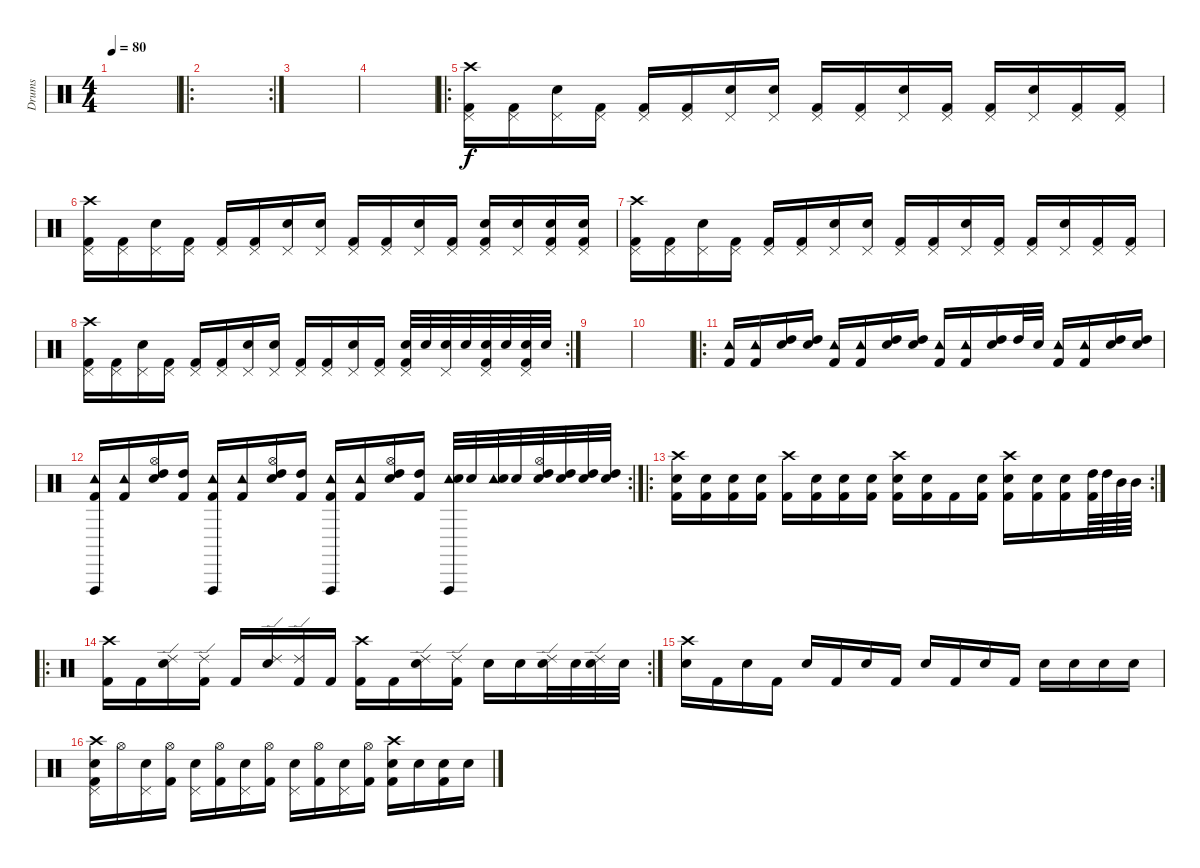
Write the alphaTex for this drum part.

\track ("Drums" "Drums") {instrument percussion}
\staff {score}
\articulation defaults
\ts (4 4)
\tempo 80
\clef neutral
\ks c
|
\ro
\rc 2
|
|
|
\ro
("Crash high (hit)" "Pedal Hi-Hat (hit)" "Kick (hit) 2").16 ("Pedal Hi-Hat (hit)" "Kick (hit) 2").16 ("Pedal Hi-Hat (hit)" "Electric Snare (hit)").16 ("Pedal Hi-Hat (hit)" "Kick (hit) 2").16 ("Pedal Hi-Hat (hit)" "Kick (hit) 2").16 ("Pedal Hi-Hat (hit)" "Kick (hit) 2").16 ("Pedal Hi-Hat (hit)" "Electric Snare (hit)").16 ("Pedal Hi-Hat (hit)" "Electric Snare (hit)").16 ("Pedal Hi-Hat (hit)" "Kick (hit) 2").16 ("Pedal Hi-Hat (hit)" "Kick (hit) 2").16 ("Pedal Hi-Hat (hit)" "Electric Snare (hit)").16 ("Pedal Hi-Hat (hit)" "Kick (hit) 2").16 ("Pedal Hi-Hat (hit)" "Kick (hit) 2").16 ("Pedal Hi-Hat (hit)" "Electric Snare (hit)").16 ("Pedal Hi-Hat (hit)" "Kick (hit) 2").16 ("Pedal Hi-Hat (hit)" "Kick (hit) 2").16 |
("Crash high (hit)" "Pedal Hi-Hat (hit)" "Kick (hit) 2").16 ("Pedal Hi-Hat (hit)" "Kick (hit) 2").16 ("Pedal Hi-Hat (hit)" "Electric Snare (hit)").16 ("Pedal Hi-Hat (hit)" "Kick (hit) 2").16 ("Pedal Hi-Hat (hit)" "Kick (hit) 2").16 ("Pedal Hi-Hat (hit)" "Kick (hit) 2").16 ("Pedal Hi-Hat (hit)" "Electric Snare (hit)").16 ("Pedal Hi-Hat (hit)" "Electric Snare (hit)").16 ("Pedal Hi-Hat (hit)" "Kick (hit) 2").16 ("Pedal Hi-Hat (hit)" "Kick (hit) 2").16 ("Pedal Hi-Hat (hit)" "Electric Snare (hit)").16 ("Pedal Hi-Hat (hit)" "Kick (hit) 2").16 ("Pedal Hi-Hat (hit)" "Electric Snare (hit)" "Kick (hit) 2").16 ("Pedal Hi-Hat (hit)" "Electric Snare (hit)").16 ("Pedal Hi-Hat (hit)" "Electric Snare (hit)" "Kick (hit) 2").16 ("Pedal Hi-Hat (hit)" "Electric Snare (hit)" "Kick (hit) 2").16 |
("Crash high (hit)" "Pedal Hi-Hat (hit)" "Kick (hit) 2").16 ("Pedal Hi-Hat (hit)" "Kick (hit) 2").16 ("Pedal Hi-Hat (hit)" "Electric Snare (hit)").16 ("Pedal Hi-Hat (hit)" "Kick (hit) 2").16 ("Pedal Hi-Hat (hit)" "Kick (hit) 2").16 ("Pedal Hi-Hat (hit)" "Kick (hit) 2").16 ("Pedal Hi-Hat (hit)" "Electric Snare (hit)").16 ("Pedal Hi-Hat (hit)" "Electric Snare (hit)").16 ("Pedal Hi-Hat (hit)" "Kick (hit) 2").16 ("Pedal Hi-Hat (hit)" "Kick (hit) 2").16 ("Pedal Hi-Hat (hit)" "Electric Snare (hit)").16 ("Pedal Hi-Hat (hit)" "Kick (hit) 2").16 ("Pedal Hi-Hat (hit)" "Kick (hit) 2").16 ("Pedal Hi-Hat (hit)" "Electric Snare (hit)").16 ("Pedal Hi-Hat (hit)" "Kick (hit) 2").16 ("Pedal Hi-Hat (hit)" "Kick (hit) 2").16 |
\rc 2
("Crash high (hit)" "Pedal Hi-Hat (hit)" "Kick (hit) 2").16 ("Pedal Hi-Hat (hit)" "Kick (hit) 2").16 ("Pedal Hi-Hat (hit)" "Electric Snare (hit)").16 ("Pedal Hi-Hat (hit)" "Kick (hit) 2").16 ("Pedal Hi-Hat (hit)" "Kick (hit) 2").16 ("Pedal Hi-Hat (hit)" "Kick (hit) 2").16 ("Pedal Hi-Hat (hit)" "Electric Snare (hit)").16 ("Pedal Hi-Hat (hit)" "Electric Snare (hit)").16 ("Pedal Hi-Hat (hit)" "Kick (hit) 2").16 ("Pedal Hi-Hat (hit)" "Kick (hit) 2").16 ("Pedal Hi-Hat (hit)" "Electric Snare (hit)").16 ("Pedal Hi-Hat (hit)" "Kick (hit) 2").16 ("Pedal Hi-Hat (hit)" "Electric Snare (hit)" "Kick (hit) 2").32 "Electric Snare (hit)".32 ("Pedal Hi-Hat (hit)" "Electric Snare (hit)").32 "Electric Snare (hit)".32 ("Pedal Hi-Hat (hit)" "Electric Snare (hit)" "Kick (hit) 2").32 "Electric Snare (hit)".32 ("Pedal Hi-Hat (hit)" "Electric Snare (hit)" "Kick (hit) 2").32 "Electric Snare (hit)".32 |
|
|
\ro
("Tambourine (hit)" "Kick (hit) 2").16 ("Tambourine (hit)" "Kick (hit) 2").16 ("High Tom (hit)" "Electric Snare (hit)").16 ("High Tom (hit)" "Electric Snare (hit)").16 ("Tambourine (hit)" "Kick (hit) 2").16 ("Tambourine (hit)" "Kick (hit) 2").16 ("High Tom (hit)" "Electric Snare (hit)").16 ("High Tom (hit)" "Electric Snare (hit)").16 ("Tambourine (hit)" "Kick (hit) 2").16 ("Tambourine (hit)" "Kick (hit) 2").16 ("High Tom (hit)" "Electric Snare (hit)").16 "High Tom (hit)".32 "Electric Snare (hit)".32 ("Tambourine (hit)" "Kick (hit) 2").16 ("Tambourine (hit)" "Kick (hit) 2").16 ("High Tom (hit)" "Electric Snare (hit)").16 ("High Tom (hit)" "Electric Snare (hit)").16 |
\rc 2
("Tambourine (hit)" "Vibraslap (hit)" "Kick (hit) 2").16 ("Tambourine (hit)" "Kick (hit) 2").16 ("Hi-Hat (open)" "Electric Snare (hit)" "High Tom (hit)").16 ("High Tom (hit)" "Kick (hit) 2").16 ("Tambourine (hit)" "Vibraslap (hit)" "Kick (hit) 2").16 ("Tambourine (hit)" "Kick (hit) 2").16 ("Hi-Hat (open)" "Electric Snare (hit)" "High Tom (hit)").16 ("High Tom (hit)" "Kick (hit) 2").16 ("Tambourine (hit)" "Vibraslap (hit)" "Kick (hit) 2").16 ("Tambourine (hit)" "Kick (hit) 2").16 ("Hi-Hat (open)" "Electric Snare (hit)" "High Tom (hit)").16 ("High Tom (hit)" "Kick (hit) 2").16 ("Tambourine (hit)" "Electric Snare (hit)" "Vibraslap (hit)").32 "Electric Snare (hit)".32 ("Tambourine (hit)" "Electric Snare (hit)").32 "Electric Snare (hit)".32 ("Hi-Hat (open)" "Electric Snare (hit)" "High Tom (hit)").32 ("Electric Snare (hit)" "High Tom (hit)").32 ("Electric Snare (hit)" "High Tom (hit)").32 ("Electric Snare (hit)" "High Tom (hit)").32 |
\ro
\rc 2
("Crash high (hit)" "Electric Snare (hit)" "Kick (hit) 2").16 ("Electric Snare (hit)" "Kick (hit) 2").16 ("Electric Snare (hit)" "Kick (hit) 2").16 ("Electric Snare (hit)" "Kick (hit) 2").16 ("Crash high (hit)" "Kick (hit) 2").16 ("Electric Snare (hit)" "Kick (hit) 2").16 ("Electric Snare (hit)" "Kick (hit) 2").16 ("Electric Snare (hit)" "Kick (hit) 2").16 ("Crash high (hit)" "Electric Snare (hit)" "Kick (hit) 2").16 ("Electric Snare (hit)" "Kick (hit) 2").16 "Kick (hit) 2".16 ("Electric Snare (hit)" "Kick (hit) 2").16 ("Crash high (hit)" "Electric Snare (hit)" "Kick (hit) 2").16 ("Electric Snare (hit)" "Kick (hit) 2").16 ("Electric Snare (hit)" "Kick (hit) 2").16 ("High Tom (hit)" "Kick (hit) 2").64 "High Tom (hit)".64 "Mid Tom (hit)".64 "Mid Tom (hit)".64 |
\ro
\rc 2
("Crash high (hit)" "Kick (hit) 2").16 "Kick (hit) 2".16 ("Ride (edge) 2" "Electric Snare (hit)").16 ("Ride (edge) 2" "Kick (hit) 2").16 "Kick (hit) 2".16 ("Ride (edge) 2" "Electric Snare (hit)").16 ("Ride (edge) 2" "Kick (hit) 2").16 "Kick (hit) 2".16 ("Crash high (hit)" "Kick (hit) 2").16 "Kick (hit) 2".16 ("Ride (edge) 2" "Electric Snare (hit)").16 ("Ride (edge) 2" "Kick (hit) 2").16 "Electric Snare (hit)".16 "Electric Snare (hit)".16 ("Ride (edge) 2" "Electric Snare (hit)").32 "Electric Snare (hit)".32 ("Ride (edge) 2" "Electric Snare (hit)").32 "Electric Snare (hit)".32 |
("Crash high (hit)" "Electric Snare (hit)").16 "Kick (hit) 2".16 "Electric Snare (hit)".16 "Kick (hit) 2".16 "Electric Snare (hit)".16 "Kick (hit) 2".16 "Electric Snare (hit)".16 "Kick (hit) 2".16 "Electric Snare (hit)".16 "Kick (hit) 2".16 "Electric Snare (hit)".16 "Kick (hit) 2".16 "Electric Snare (hit)".16 "Electric Snare (hit)".16 "Electric Snare (hit)".16 "Electric Snare (hit)".16 |
("Crash high (hit)" "Pedal Hi-Hat (hit)" "Electric Snare (hit)" "Kick (hit) 2").16 "Hi-Hat (open)".16 ("Pedal Hi-Hat (hit)" "Electric Snare (hit)").16 ("Hi-Hat (open)" "Kick (hit) 2").16 ("Pedal Hi-Hat (hit)" "Electric Snare (hit)").16 ("Hi-Hat (open)" "Kick (hit) 2").16 ("Pedal Hi-Hat (hit)" "Electric Snare (hit)").16 ("Hi-Hat (open)" "Kick (hit) 2").16 ("Pedal Hi-Hat (hit)" "Electric Snare (hit)").16 ("Hi-Hat (open)" "Kick (hit) 2").16 ("Pedal Hi-Hat (hit)" "Electric Snare (hit)").16 ("Hi-Hat (open)" "Kick (hit) 2").16 ("Crash high (hit)" "Electric Snare (hit)" "Kick (hit) 2").16 "Electric Snare (hit)".16 ("Electric Snare (hit)" "Kick (hit) 2").16 "Electric Snare (hit)".16
